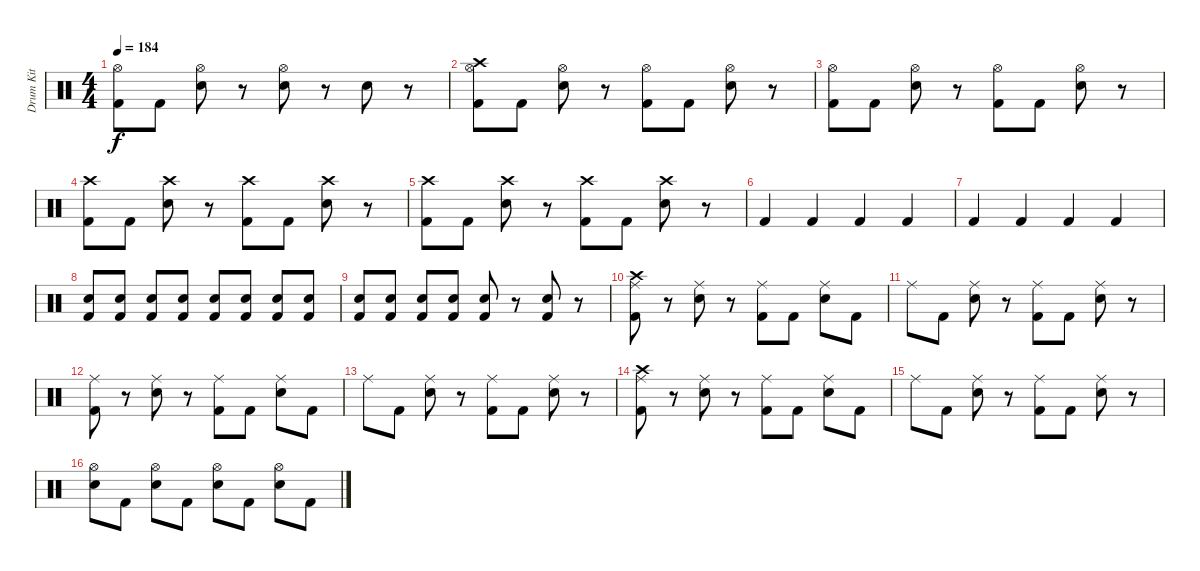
\track ("Drum Kit" "Drum Kit") {instrument percussion}
\staff {score}
\articulation defaults
\ts (4 4)
\tempo 184
\clef neutral
\ks c
("Hi-Hat (open)" "Kick (hit) 2").8{dy f} "Kick (hit) 2".8 ("Hi-Hat (open)" "Snare (hit) 2").8 r.8 ("Hi-Hat (open)" "Snare (hit) 2").8 r.8 "Snare (hit) 2".8 r.8 |
("Crash high (hit)" "Hi-Hat (open)" "Kick (hit) 2").8 "Kick (hit) 2".8 ("Hi-Hat (open)" "Snare (hit) 2").8 r.8 ("Hi-Hat (open)" "Kick (hit) 2").8 "Kick (hit) 2".8 ("Hi-Hat (open)" "Snare (hit) 2").8 r.8 |
("Hi-Hat (open)" "Kick (hit) 2").8 "Kick (hit) 2".8 ("Hi-Hat (open)" "Snare (hit) 2").8 r.8 ("Hi-Hat (open)" "Kick (hit) 2").8 "Kick (hit) 2".8 ("Hi-Hat (open)" "Snare (hit) 2").8 r.8 |
("Crash high (hit)" "Kick (hit) 2").8 "Kick (hit) 2".8 ("Crash high (hit)" "Snare (hit) 2").8 r.8 ("Crash high (hit)" "Kick (hit) 2").8 "Kick (hit) 2".8 ("Crash high (hit)" "Snare (hit) 2").8 r.8 |
("Crash high (hit)" "Kick (hit) 2").8 "Kick (hit) 2".8 ("Crash high (hit)" "Snare (hit) 2").8 r.8 ("Crash high (hit)" "Kick (hit) 2").8 "Kick (hit) 2".8 ("Crash high (hit)" "Snare (hit) 2").8 r.8 |
"Kick (hit) 2".4 "Kick (hit) 2".4 "Kick (hit) 2".4 "Kick (hit) 2".4 |
"Kick (hit) 2".4 "Kick (hit) 2".4 "Kick (hit) 2".4 "Kick (hit) 2".4 |
("Snare (hit) 2" "Kick (hit) 2").8{volume 4} ("Snare (hit) 2" "Kick (hit) 2").8{volume 13} ("Snare (hit) 2" "Kick (hit) 2").8 ("Snare (hit) 2" "Kick (hit) 2").8 ("Snare (hit) 2" "Kick (hit) 2").8 ("Snare (hit) 2" "Kick (hit) 2").8 ("Snare (hit) 2" "Kick (hit) 2").8 ("Snare (hit) 2" "Kick (hit) 2").8 |
("Snare (hit) 2" "Kick (hit) 2").8 ("Snare (hit) 2" "Kick (hit) 2").8 ("Snare (hit) 2" "Kick (hit) 2").8 ("Snare (hit) 2" "Kick (hit) 2").8 ("Snare (hit) 2" "Kick (hit) 2").8 r.8 ("Snare (hit) 2" "Kick (hit) 2").8 r.8 |
("Crash high (hit)" "Ride (middle)" "Kick (hit) 2").8 r.8 ("Ride (middle)" "Snare (hit) 2").8 r.8 ("Ride (middle)" "Kick (hit) 2").8 "Kick (hit) 2".8 ("Ride (middle)" "Snare (hit) 2").8 "Kick (hit) 2".8 |
"Ride (middle)".8 "Kick (hit) 2".8 ("Ride (middle)" "Snare (hit) 2").8 r.8 ("Ride (middle)" "Kick (hit) 2").8 "Kick (hit) 2".8 ("Ride (middle)" "Snare (hit) 2").8 r.8 |
("Ride (middle)" "Kick (hit) 2").8 r.8 ("Ride (middle)" "Snare (hit) 2").8 r.8 ("Ride (middle)" "Kick (hit) 2").8 "Kick (hit) 2".8 ("Ride (middle)" "Snare (hit) 2").8 "Kick (hit) 2".8 |
"Ride (middle)".8 "Kick (hit) 2".8 ("Ride (middle)" "Snare (hit) 2").8 r.8 ("Ride (middle)" "Kick (hit) 2").8 "Kick (hit) 2".8 ("Ride (middle)" "Snare (hit) 2").8 r.8 |
("Crash high (hit)" "Ride (middle)" "Kick (hit) 2").8 r.8 ("Ride (middle)" "Snare (hit) 2").8 r.8 ("Ride (middle)" "Kick (hit) 2").8 "Kick (hit) 2".8 ("Ride (middle)" "Snare (hit) 2").8 "Kick (hit) 2".8 |
"Ride (middle)".8 "Kick (hit) 2".8 ("Ride (middle)" "Snare (hit) 2").8 r.8 ("Ride (middle)" "Kick (hit) 2").8 "Kick (hit) 2".8 ("Ride (middle)" "Snare (hit) 2").8 r.8 |
("Hi-Hat (open)" "Snare (hit) 2").8 "Kick (hit) 2".8 ("Hi-Hat (open)" "Snare (hit) 2").8 "Kick (hit) 2".8 ("Hi-Hat (open)" "Snare (hit) 2").8 "Kick (hit) 2".8 ("Hi-Hat (open)" "Snare (hit) 2").8 "Kick (hit) 2".8
